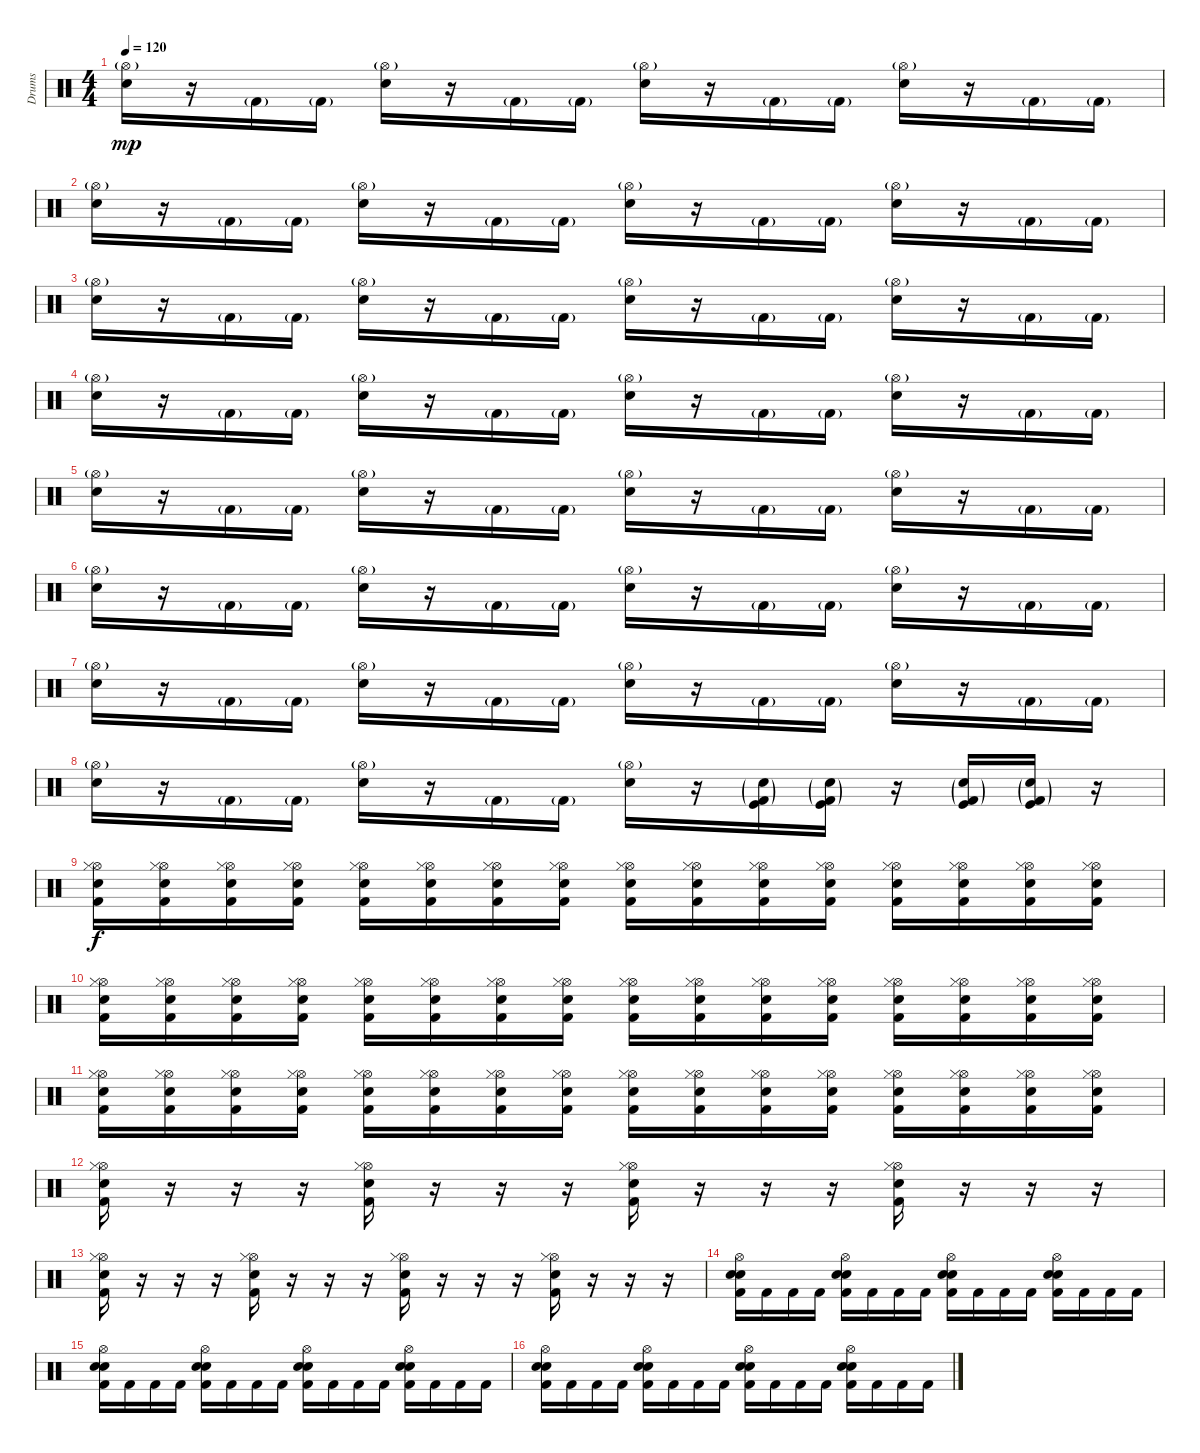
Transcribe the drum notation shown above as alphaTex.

\track ("Drums" "Drums") {instrument percussion}
\staff {score}
\articulation defaults
\ts (4 4)
\tempo 120
\clef neutral
\ks c
("Hi-Hat (open)"{g} "Electric Snare (hit)").16{dy mp} r.16 "Kick (hit) 2"{g}.16 "Kick (hit) 2"{g}.16 ("Hi-Hat (open)"{g} "Electric Snare (hit)").16 r.16 "Kick (hit) 2"{g}.16 "Kick (hit) 2"{g}.16 ("Hi-Hat (open)"{g} "Electric Snare (hit)").16 r.16 "Kick (hit) 2"{g}.16 "Kick (hit) 2"{g}.16 ("Hi-Hat (open)"{g} "Electric Snare (hit)").16 r.16 "Kick (hit) 2"{g}.16 "Kick (hit) 2"{g}.16 |
("Hi-Hat (open)"{g} "Electric Snare (hit)").16 r.16 "Kick (hit) 2"{g}.16 "Kick (hit) 2"{g}.16 ("Hi-Hat (open)"{g} "Electric Snare (hit)").16 r.16 "Kick (hit) 2"{g}.16 "Kick (hit) 2"{g}.16 ("Hi-Hat (open)"{g} "Electric Snare (hit)").16 r.16 "Kick (hit) 2"{g}.16 "Kick (hit) 2"{g}.16 ("Hi-Hat (open)"{g} "Electric Snare (hit)").16 r.16 "Kick (hit) 2"{g}.16 "Kick (hit) 2"{g}.16 |
("Hi-Hat (open)"{g} "Electric Snare (hit)").16 r.16 "Kick (hit) 2"{g}.16 "Kick (hit) 2"{g}.16 ("Hi-Hat (open)"{g} "Electric Snare (hit)").16 r.16 "Kick (hit) 2"{g}.16 "Kick (hit) 2"{g}.16 ("Hi-Hat (open)"{g} "Electric Snare (hit)").16 r.16 "Kick (hit) 2"{g}.16 "Kick (hit) 2"{g}.16 ("Hi-Hat (open)"{g} "Electric Snare (hit)").16 r.16 "Kick (hit) 2"{g}.16 "Kick (hit) 2"{g}.16 |
("Hi-Hat (open)"{g} "Electric Snare (hit)").16 r.16 "Kick (hit) 2"{g}.16 "Kick (hit) 2"{g}.16 ("Hi-Hat (open)"{g} "Electric Snare (hit)").16 r.16 "Kick (hit) 2"{g}.16 "Kick (hit) 2"{g}.16 ("Hi-Hat (open)"{g} "Electric Snare (hit)").16 r.16 "Kick (hit) 2"{g}.16 "Kick (hit) 2"{g}.16 ("Hi-Hat (open)"{g} "Electric Snare (hit)").16 r.16 "Kick (hit) 2"{g}.16 "Kick (hit) 2"{g}.16 |
("Hi-Hat (open)"{g} "Electric Snare (hit)").16 r.16 "Kick (hit) 2"{g}.16 "Kick (hit) 2"{g}.16 ("Hi-Hat (open)"{g} "Electric Snare (hit)").16 r.16 "Kick (hit) 2"{g}.16 "Kick (hit) 2"{g}.16 ("Hi-Hat (open)"{g} "Electric Snare (hit)").16 r.16 "Kick (hit) 2"{g}.16 "Kick (hit) 2"{g}.16 ("Hi-Hat (open)"{g} "Electric Snare (hit)").16 r.16 "Kick (hit) 2"{g}.16 "Kick (hit) 2"{g}.16 |
("Hi-Hat (open)"{g} "Electric Snare (hit)").16 r.16 "Kick (hit) 2"{g}.16 "Kick (hit) 2"{g}.16 ("Hi-Hat (open)"{g} "Electric Snare (hit)").16 r.16 "Kick (hit) 2"{g}.16 "Kick (hit) 2"{g}.16 ("Hi-Hat (open)"{g} "Electric Snare (hit)").16 r.16 "Kick (hit) 2"{g}.16 "Kick (hit) 2"{g}.16 ("Hi-Hat (open)"{g} "Electric Snare (hit)").16 r.16 "Kick (hit) 2"{g}.16 "Kick (hit) 2"{g}.16 |
("Hi-Hat (open)"{g} "Electric Snare (hit)").16 r.16 "Kick (hit) 2"{g}.16 "Kick (hit) 2"{g}.16 ("Hi-Hat (open)"{g} "Electric Snare (hit)").16 r.16 "Kick (hit) 2"{g}.16 "Kick (hit) 2"{g}.16 ("Hi-Hat (open)"{g} "Electric Snare (hit)").16 r.16 "Kick (hit) 2"{g}.16 "Kick (hit) 2"{g}.16 ("Hi-Hat (open)"{g} "Electric Snare (hit)").16 r.16 "Kick (hit) 2"{g}.16 "Kick (hit) 2"{g}.16 |
("Hi-Hat (open)"{g} "Electric Snare (hit)").16 r.16 "Kick (hit) 2"{g}.16 "Kick (hit) 2"{g}.16 ("Hi-Hat (open)"{g} "Electric Snare (hit)").16 r.16 "Kick (hit) 2"{g}.16 "Kick (hit) 2"{g}.16 ("Hi-Hat (open)"{g} "Electric Snare (hit)").16 r.16 ("Snare (hit) 2"{g} "Kick (hit) 2"{g} "Kick (hit)").16 ("Snare (hit) 2"{g} "Kick (hit) 2"{g} "Kick (hit)").16 r.16 ("Snare (hit) 2"{g} "Kick (hit) 2"{g} "Kick (hit)").16 ("Snare (hit) 2"{g} "Kick (hit) 2"{g} "Kick (hit)").16 r.16 |
("Kick (hit) 2" "Electric Snare (hit)" "Hi-Hat (open)" "Hi-Hat (closed)").16{dy f} ("Kick (hit) 2" "Electric Snare (hit)" "Hi-Hat (open)" "Hi-Hat (closed)").16 ("Kick (hit) 2" "Electric Snare (hit)" "Hi-Hat (open)" "Hi-Hat (closed)").16 ("Kick (hit) 2" "Electric Snare (hit)" "Hi-Hat (open)" "Hi-Hat (closed)").16 ("Kick (hit) 2" "Electric Snare (hit)" "Hi-Hat (open)" "Hi-Hat (closed)").16 ("Kick (hit) 2" "Electric Snare (hit)" "Hi-Hat (open)" "Hi-Hat (closed)").16 ("Kick (hit) 2" "Electric Snare (hit)" "Hi-Hat (open)" "Hi-Hat (closed)").16 ("Kick (hit) 2" "Electric Snare (hit)" "Hi-Hat (open)" "Hi-Hat (closed)").16 ("Kick (hit) 2" "Electric Snare (hit)" "Hi-Hat (open)" "Hi-Hat (closed)").16 ("Kick (hit) 2" "Electric Snare (hit)" "Hi-Hat (open)" "Hi-Hat (closed)").16 ("Kick (hit) 2" "Electric Snare (hit)" "Hi-Hat (open)" "Hi-Hat (closed)").16 ("Kick (hit) 2" "Electric Snare (hit)" "Hi-Hat (open)" "Hi-Hat (closed)").16 ("Kick (hit) 2" "Electric Snare (hit)" "Hi-Hat (open)" "Hi-Hat (closed)").16 ("Kick (hit) 2" "Electric Snare (hit)" "Hi-Hat (open)" "Hi-Hat (closed)").16 ("Kick (hit) 2" "Electric Snare (hit)" "Hi-Hat (open)" "Hi-Hat (closed)").16 ("Kick (hit) 2" "Electric Snare (hit)" "Hi-Hat (open)" "Hi-Hat (closed)").16 |
("Kick (hit) 2" "Electric Snare (hit)" "Hi-Hat (open)" "Hi-Hat (closed)").16 ("Kick (hit) 2" "Electric Snare (hit)" "Hi-Hat (open)" "Hi-Hat (closed)").16 ("Kick (hit) 2" "Electric Snare (hit)" "Hi-Hat (open)" "Hi-Hat (closed)").16 ("Kick (hit) 2" "Electric Snare (hit)" "Hi-Hat (open)" "Hi-Hat (closed)").16 ("Kick (hit) 2" "Electric Snare (hit)" "Hi-Hat (open)" "Hi-Hat (closed)").16 ("Kick (hit) 2" "Electric Snare (hit)" "Hi-Hat (open)" "Hi-Hat (closed)").16 ("Kick (hit) 2" "Electric Snare (hit)" "Hi-Hat (open)" "Hi-Hat (closed)").16 ("Kick (hit) 2" "Electric Snare (hit)" "Hi-Hat (open)" "Hi-Hat (closed)").16 ("Kick (hit) 2" "Electric Snare (hit)" "Hi-Hat (open)" "Hi-Hat (closed)").16 ("Kick (hit) 2" "Electric Snare (hit)" "Hi-Hat (open)" "Hi-Hat (closed)").16 ("Kick (hit) 2" "Electric Snare (hit)" "Hi-Hat (open)" "Hi-Hat (closed)").16 ("Kick (hit) 2" "Electric Snare (hit)" "Hi-Hat (open)" "Hi-Hat (closed)").16 ("Kick (hit) 2" "Electric Snare (hit)" "Hi-Hat (open)" "Hi-Hat (closed)").16 ("Kick (hit) 2" "Electric Snare (hit)" "Hi-Hat (open)" "Hi-Hat (closed)").16 ("Kick (hit) 2" "Electric Snare (hit)" "Hi-Hat (open)" "Hi-Hat (closed)").16 ("Kick (hit) 2" "Electric Snare (hit)" "Hi-Hat (open)" "Hi-Hat (closed)").16 |
("Kick (hit) 2" "Electric Snare (hit)" "Hi-Hat (open)" "Hi-Hat (closed)").16 ("Kick (hit) 2" "Electric Snare (hit)" "Hi-Hat (open)" "Hi-Hat (closed)").16 ("Kick (hit) 2" "Electric Snare (hit)" "Hi-Hat (open)" "Hi-Hat (closed)").16 ("Kick (hit) 2" "Electric Snare (hit)" "Hi-Hat (open)" "Hi-Hat (closed)").16 ("Kick (hit) 2" "Electric Snare (hit)" "Hi-Hat (open)" "Hi-Hat (closed)").16 ("Kick (hit) 2" "Electric Snare (hit)" "Hi-Hat (open)" "Hi-Hat (closed)").16 ("Kick (hit) 2" "Electric Snare (hit)" "Hi-Hat (open)" "Hi-Hat (closed)").16 ("Kick (hit) 2" "Electric Snare (hit)" "Hi-Hat (open)" "Hi-Hat (closed)").16 ("Kick (hit) 2" "Electric Snare (hit)" "Hi-Hat (open)" "Hi-Hat (closed)").16 ("Kick (hit) 2" "Electric Snare (hit)" "Hi-Hat (open)" "Hi-Hat (closed)").16 ("Kick (hit) 2" "Electric Snare (hit)" "Hi-Hat (open)" "Hi-Hat (closed)").16 ("Kick (hit) 2" "Electric Snare (hit)" "Hi-Hat (open)" "Hi-Hat (closed)").16 ("Kick (hit) 2" "Electric Snare (hit)" "Hi-Hat (open)" "Hi-Hat (closed)").16 ("Kick (hit) 2" "Electric Snare (hit)" "Hi-Hat (open)" "Hi-Hat (closed)").16 ("Kick (hit) 2" "Electric Snare (hit)" "Hi-Hat (open)" "Hi-Hat (closed)").16 ("Kick (hit) 2" "Electric Snare (hit)" "Hi-Hat (open)" "Hi-Hat (closed)").16 |
("Kick (hit) 2" "Electric Snare (hit)" "Hi-Hat (open)" "Hi-Hat (closed)").16 r.16 r.16 r.16 ("Kick (hit) 2" "Electric Snare (hit)" "Hi-Hat (open)" "Hi-Hat (closed)").16 r.16 r.16 r.16 ("Kick (hit) 2" "Electric Snare (hit)" "Hi-Hat (open)" "Hi-Hat (closed)").16 r.16 r.16 r.16 ("Kick (hit) 2" "Electric Snare (hit)" "Hi-Hat (open)" "Hi-Hat (closed)").16 r.16 r.16 r.16 |
("Kick (hit) 2" "Electric Snare (hit)" "Hi-Hat (open)" "Hi-Hat (closed)").16 r.16 r.16 r.16 ("Kick (hit) 2" "Electric Snare (hit)" "Hi-Hat (open)" "Hi-Hat (closed)").16 r.16 r.16 r.16 ("Kick (hit) 2" "Electric Snare (hit)" "Hi-Hat (open)" "Hi-Hat (closed)").16 r.16 r.16 r.16 ("Kick (hit) 2" "Electric Snare (hit)" "Hi-Hat (open)" "Hi-Hat (closed)").16 r.16 r.16 r.16 |
("Kick (hit) 2" "Hi-Hat (open)" "Electric Snare (hit)" "Snare (hit) 2").16 "Kick (hit) 2".16 "Kick (hit) 2".16 "Kick (hit) 2".16 ("Kick (hit) 2" "Hi-Hat (open)" "Electric Snare (hit)" "Snare (hit) 2").16 "Kick (hit) 2".16 "Kick (hit) 2".16 "Kick (hit) 2".16 ("Kick (hit) 2" "Hi-Hat (open)" "Electric Snare (hit)" "Snare (hit) 2").16 "Kick (hit) 2".16 "Kick (hit) 2".16 "Kick (hit) 2".16 ("Kick (hit) 2" "Hi-Hat (open)" "Electric Snare (hit)" "Snare (hit) 2").16 "Kick (hit) 2".16 "Kick (hit) 2".16 "Kick (hit) 2".16 |
("Kick (hit) 2" "Hi-Hat (open)" "Electric Snare (hit)" "Snare (hit) 2").16 "Kick (hit) 2".16 "Kick (hit) 2".16 "Kick (hit) 2".16 ("Kick (hit) 2" "Hi-Hat (open)" "Electric Snare (hit)" "Snare (hit) 2").16 "Kick (hit) 2".16 "Kick (hit) 2".16 "Kick (hit) 2".16 ("Kick (hit) 2" "Hi-Hat (open)" "Electric Snare (hit)" "Snare (hit) 2").16 "Kick (hit) 2".16 "Kick (hit) 2".16 "Kick (hit) 2".16 ("Kick (hit) 2" "Hi-Hat (open)" "Electric Snare (hit)" "Snare (hit) 2").16 "Kick (hit) 2".16 "Kick (hit) 2".16 "Kick (hit) 2".16 |
("Kick (hit) 2" "Hi-Hat (open)" "Electric Snare (hit)" "Snare (hit) 2").16 "Kick (hit) 2".16 "Kick (hit) 2".16 "Kick (hit) 2".16 ("Kick (hit) 2" "Hi-Hat (open)" "Electric Snare (hit)" "Snare (hit) 2").16 "Kick (hit) 2".16 "Kick (hit) 2".16 "Kick (hit) 2".16 ("Kick (hit) 2" "Hi-Hat (open)" "Electric Snare (hit)" "Snare (hit) 2").16 "Kick (hit) 2".16 "Kick (hit) 2".16 "Kick (hit) 2".16 ("Kick (hit) 2" "Hi-Hat (open)" "Electric Snare (hit)" "Snare (hit) 2").16 "Kick (hit) 2".16 "Kick (hit) 2".16 "Kick (hit) 2".16
